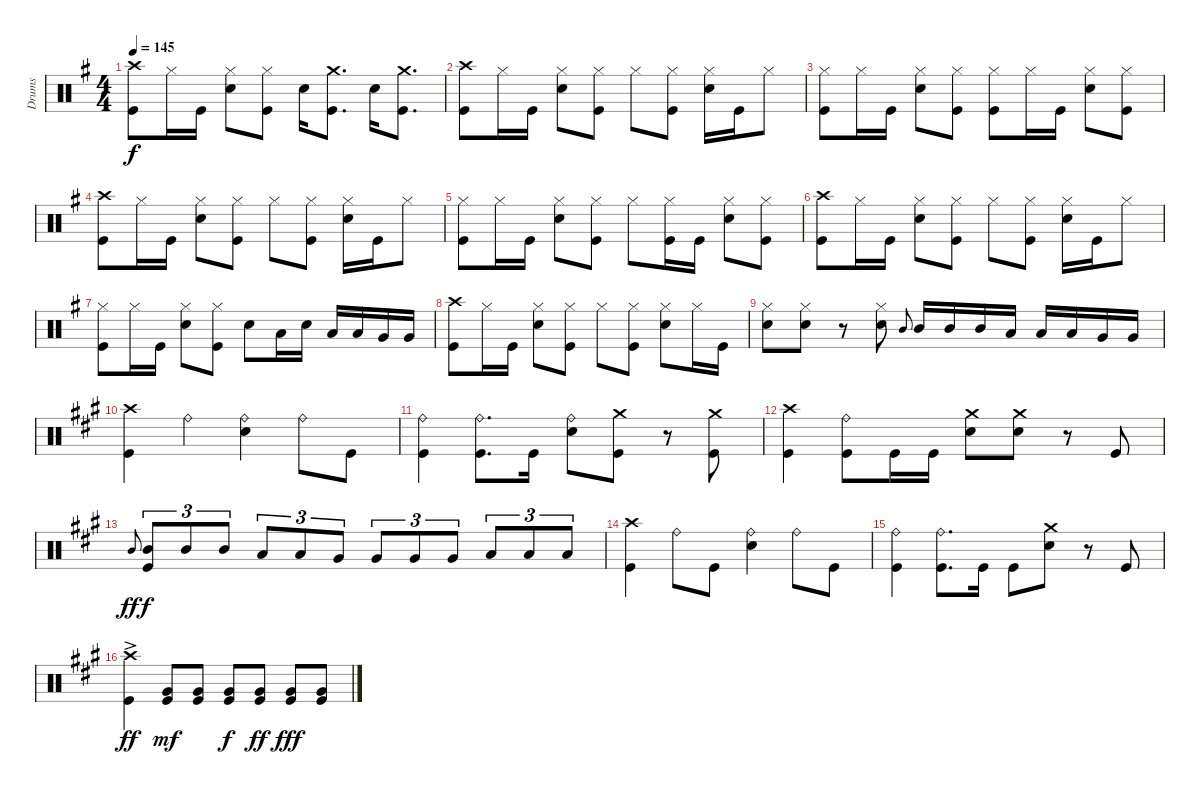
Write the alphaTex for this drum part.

\track ("Drums" "Drums") {instrument percussion}
\staff {score}
\articulation defaults
\ts (4 4)
\tempo 145
\clef neutral
\ks eminor
("Crash high (hit)" "Kick (hit)").8{dy f} "Hi-Hat (closed)".16 "Kick (hit)".16 ("Hi-Hat (closed)" "Snare (hit) 2").8 ("Hi-Hat (closed)" "Kick (hit)").8 "Snare (hit) 2".16 ("Crash medium (hit)" "Kick (hit)").8{d} "Snare (hit) 2".16 ("Crash medium (hit)" "Kick (hit)").8{d} |
("Crash high (hit)" "Kick (hit)").8 "Hi-Hat (closed)".16 "Kick (hit)".16 ("Hi-Hat (closed)" "Snare (hit) 2").8 ("Hi-Hat (closed)" "Kick (hit)").8 "Hi-Hat (closed)".8 ("Hi-Hat (closed)" "Kick (hit)").8 ("Hi-Hat (closed)" "Snare (hit) 2").16 "Kick (hit)".16 "Hi-Hat (closed)".8 |
("Hi-Hat (closed)" "Kick (hit)").8 "Hi-Hat (closed)".16 "Kick (hit)".16 ("Hi-Hat (closed)" "Snare (hit) 2").8 ("Hi-Hat (closed)" "Kick (hit)").8 ("Hi-Hat (closed)" "Kick (hit)").8 "Hi-Hat (closed)".16 "Kick (hit)".16 ("Hi-Hat (closed)" "Snare (hit) 2").8 ("Hi-Hat (closed)" "Kick (hit)").8 |
("Crash high (hit)" "Kick (hit)").8 "Hi-Hat (closed)".16 "Kick (hit)".16 ("Hi-Hat (closed)" "Snare (hit) 2").8 ("Hi-Hat (closed)" "Kick (hit)").8 "Hi-Hat (closed)".8 ("Hi-Hat (closed)" "Kick (hit)").8 ("Hi-Hat (closed)" "Snare (hit) 2").16 "Kick (hit)".16 "Hi-Hat (closed)".8 |
("Hi-Hat (closed)" "Kick (hit)").8 "Hi-Hat (closed)".16 "Kick (hit)".16 ("Hi-Hat (closed)" "Snare (hit) 2").8 ("Hi-Hat (closed)" "Kick (hit)").8 "Hi-Hat (closed)".8 ("Hi-Hat (closed)" "Kick (hit)").16 "Kick (hit)".16 ("Hi-Hat (closed)" "Snare (hit) 2").8 ("Hi-Hat (closed)" "Kick (hit)").8 |
("Crash high (hit)" "Kick (hit)").8 "Hi-Hat (closed)".16 "Kick (hit)".16 ("Hi-Hat (closed)" "Snare (hit) 2").8 ("Hi-Hat (closed)" "Kick (hit)").8 "Hi-Hat (closed)".8 ("Hi-Hat (closed)" "Kick (hit)").8 ("Hi-Hat (closed)" "Snare (hit) 2").16 "Kick (hit)".16 "Hi-Hat (closed)".8 |
("Hi-Hat (closed)" "Kick (hit)").8 "Hi-Hat (closed)".16 "Kick (hit)".16 ("Hi-Hat (closed)" "Snare (hit) 2").8 ("Hi-Hat (closed)" "Kick (hit)").8 "Snare (hit) 2".8 "Low Tom (hit)".16 "Snare (hit) 2".16 "Low Tom (hit)".16 "Low Tom (hit)".16 "Very Low Tom (hit)".16 "Very Low Tom (hit)".16 |
("Crash high (hit)" "Kick (hit)").8 "Hi-Hat (closed)".16 "Kick (hit)".16 ("Hi-Hat (closed)" "Snare (hit) 2").8 ("Hi-Hat (closed)" "Kick (hit)").8 "Hi-Hat (closed)".8 ("Hi-Hat (closed)" "Kick (hit)").8 ("Hi-Hat (closed)" "Snare (hit) 2").8 "Hi-Hat (closed)".16 "Kick (hit)".16 |
("Hi-Hat (closed)" "Snare (hit) 2").8 ("Hi-Hat (closed)" "Snare (hit) 2").8 r.8 ("Hi-Hat (closed)" "Snare (hit) 2").8 "Mid Tom (hit)".8{gr onbeat} "Mid Tom (hit)".16 "Mid Tom (hit)".16 "Mid Tom (hit)".16 "Low Tom (hit)".16 "Low Tom (hit)".16 "Low Tom (hit)".16 "Very Low Tom (hit)".16 "Very Low Tom (hit)".16 |
\ks f#minor
("Crash high (hit)" "Kick (hit)").4 "Ride (bell)".4 ("Ride (bell)" "Snare (hit) 2").4 "Ride (bell)".8 "Kick (hit)".8 |
("Ride (bell)" "Kick (hit)").4 ("Ride (bell)" "Kick (hit)").8{d} "Kick (hit)".16 ("Ride (bell)" "Snare (hit) 2").8 ("Crash medium (hit)" "Kick (hit)").8 r.8 ("Crash medium (hit)" "Kick (hit)").8 |
("Crash high (hit)" "Kick (hit)").4 ("Ride (bell)" "Kick (hit)").8 "Kick (hit)".16 "Kick (hit)".16 ("Crash medium (hit)" "Snare (hit) 2").8 ("Crash medium (hit)" "Snare (hit) 2").8 r.8 "Kick (hit)".8 |
"Mid Tom (hit)".8{gr onbeat dy ff} ("Mid Tom (hit)" "Kick (hit)").8{tu (3 2) dy f} "Mid Tom (hit)".8{tu (3 2)} "Mid Tom (hit)".8{tu (3 2)} "Low Tom (hit)".8{tu (3 2)} "Low Tom (hit)".8{tu (3 2)} "Very Low Tom (hit)".8{tu (3 2)} "Very Low Tom (hit)".8{tu (3 2)} "Very Low Tom (hit)".8{tu (3 2)} "Very Low Tom (hit)".8{tu (3 2)} "Low Floor Tom (hit)".8{tu (3 2)} "Low Floor Tom (hit)".8{tu (3 2)} "Low Floor Tom (hit)".8{tu (3 2)} |
("Crash high (hit)" "Kick (hit)").4 "Ride (bell)".8 "Kick (hit)".8 ("Ride (bell)" "Snare (hit) 2").4 "Ride (bell)".8 "Kick (hit)".8 |
("Ride (bell)" "Kick (hit)").4 ("Ride (bell)" "Kick (hit)").8{d} "Kick (hit)".16 "Kick (hit)".8 ("Crash medium (hit)" "Snare (hit) 2").8 r.8 "Kick (hit)".8 |
("Crash high (hit)"{ac} "Kick (hit)"{ac}).4{dy ff} ("Very Low Tom (hit)" "Kick (hit)").8{dy mf} ("Very Low Tom (hit)" "Kick (hit)").8 ("Very Low Tom (hit)" "Kick (hit)").8{dy f} ("Very Low Tom (hit)" "Kick (hit)").8{dy ff} ("Very Low Tom (hit)" "Kick (hit)").8{dy fff} ("Very Low Tom (hit)" "Kick (hit)").8
